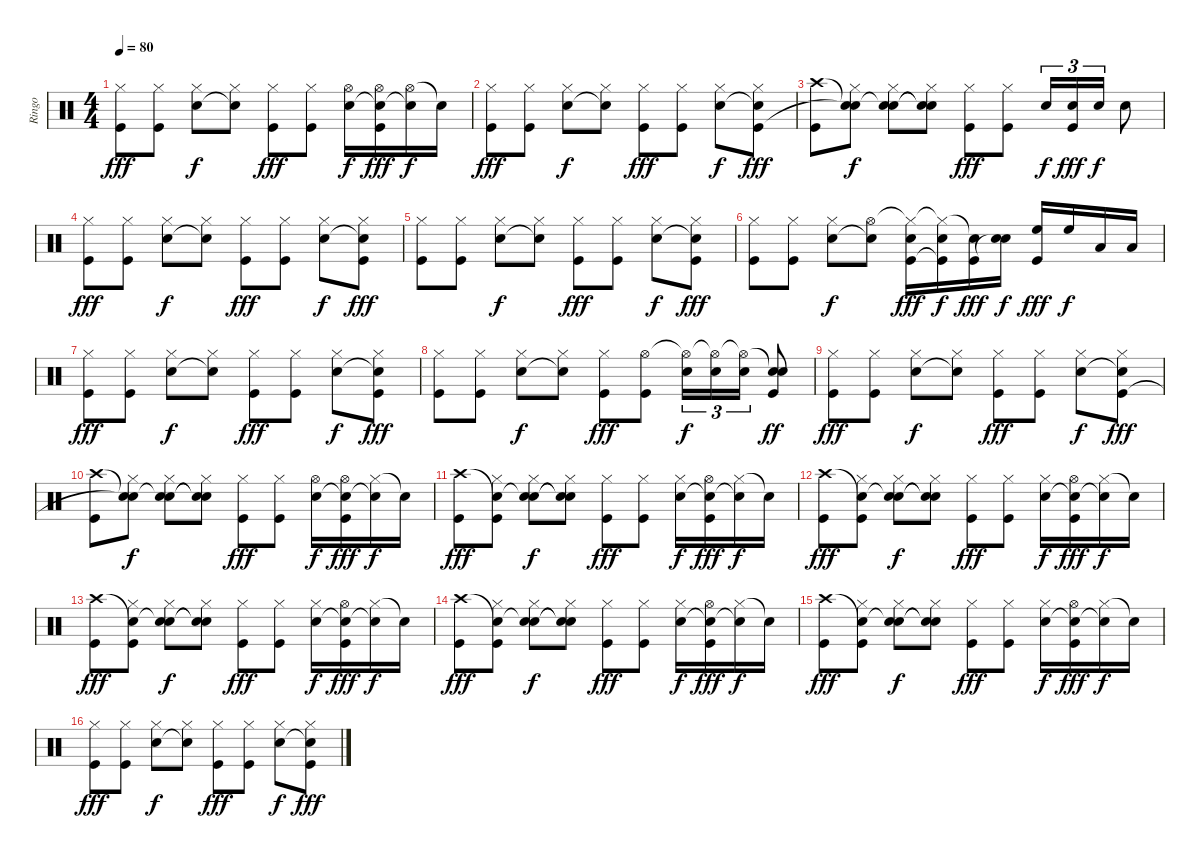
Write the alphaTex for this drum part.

\track ("Ringo" "Ringo") {instrument percussion}
\staff {score}
\articulation defaults
\ts (4 4)
\tempo 80
\clef neutral
\ks c
("Hi-Hat (closed)" "Kick (hit)").8{dy fff} ("Hi-Hat (closed)" "Kick (hit)").8 ("Hi-Hat (closed)" "Electric Snare (hit)").8{dy f} ("Hi-Hat (closed)" "Snare (hit)"{t}).8 ("Hi-Hat (closed)" "Kick (hit)").8{dy fff} ("Hi-Hat (closed)" "Kick (hit)").8 ("Hi-Hat (open)" "Electric Snare (hit)").16{dy f} ("Hi-Hat (open)" "Snare (hit)"{t} "Kick (hit)").16{dy fff} ("Hi-Hat (open)" "Snare (hit)"{t}).16{dy f} "Snare (hit)"{t}.16 |
("Hi-Hat (closed)" "Kick (hit)").8{dy fff} ("Hi-Hat (closed)" "Kick (hit)").8 ("Hi-Hat (closed)" "Electric Snare (hit)").8{dy f} ("Hi-Hat (closed)" "Snare (hit)"{t}).8 ("Hi-Hat (closed)" "Kick (hit)").8{dy fff} ("Hi-Hat (closed)" "Kick (hit)").8 ("Hi-Hat (closed)" "Electric Snare (hit)").8{dy f} ("Hi-Hat (closed)" "Snare (hit)"{t} "Kick (hit)").8{dy fff} |
("Crash high (hit)" "Kick (hit)").8 ("Snare (hit)"{t} "Hi-Hat (closed)" "Snare (hit)"{t}).8{dy f} ("Snare (hit)"{t} "Hi-Hat (closed)" "Electric Snare (hit)").8 ("Snare (hit)"{t} "Hi-Hat (closed)" "Snare (hit)"{t}).8 ("Hi-Hat (closed)" "Kick (hit)").8{dy fff} ("Hi-Hat (closed)" "Kick (hit)").8 "Electric Snare (hit)".16{tu (3 2) dy f} ("Electric Snare (hit)" "Kick (hit)").16{tu (3 2) dy fff} "Electric Snare (hit)".16{tu (3 2) dy f} "Electric Snare (hit)".8 |
("Hi-Hat (closed)" "Kick (hit)").8{dy fff} ("Hi-Hat (closed)" "Kick (hit)").8 ("Hi-Hat (closed)" "Electric Snare (hit)").8{dy f} ("Hi-Hat (closed)" "Snare (hit)"{t}).8 ("Hi-Hat (closed)" "Kick (hit)").8{dy fff} ("Hi-Hat (closed)" "Kick (hit)").8 ("Hi-Hat (closed)" "Electric Snare (hit)").8{dy f} ("Hi-Hat (closed)" "Snare (hit)"{t} "Kick (hit)").8{dy fff} |
("Hi-Hat (closed)" "Kick (hit)").8 ("Hi-Hat (closed)" "Kick (hit)").8 ("Hi-Hat (closed)" "Electric Snare (hit)").8{dy f} ("Hi-Hat (closed)" "Snare (hit)"{t}).8 ("Hi-Hat (closed)" "Kick (hit)").8{dy fff} ("Hi-Hat (closed)" "Kick (hit)").8 ("Hi-Hat (closed)" "Electric Snare (hit)").8{dy f} ("Hi-Hat (closed)" "Snare (hit)"{t} "Kick (hit)").8{dy fff} |
("Hi-Hat (closed)" "Kick (hit)").8 ("Hi-Hat (closed)" "Kick (hit)").8 ("Hi-Hat (closed)" "Electric Snare (hit)").8{dy f} ("Hi-Hat (open)" "Snare (hit)"{t}).8 ("Hi-Hat (closed)"{t} "Electric Snare (hit)" "Kick (hit)").16{dy fff} ("Hi-Hat (closed)"{t} "Electric Snare (hit)" "Kick (hit)"{t}).16{dy f} ("Electric Snare (hit)"{t} "Kick (hit)").16{dy fff} ("Electric Snare (hit)" "Snare (hit)"{t}).16{dy f} ("High Floor Tom (hit)" "Kick (hit)").16{dy fff} "High Floor Tom (hit)".16{dy f} "Low Tom (hit)".16 "Low Tom (hit)".16 |
("Hi-Hat (closed)" "Kick (hit)").8{dy fff} ("Hi-Hat (closed)" "Kick (hit)").8 ("Hi-Hat (closed)" "Electric Snare (hit)").8{dy f} ("Hi-Hat (closed)" "Snare (hit)"{t}).8 ("Hi-Hat (closed)" "Kick (hit)").8{dy fff} ("Hi-Hat (closed)" "Kick (hit)").8 ("Hi-Hat (closed)" "Electric Snare (hit)").8{dy f} ("Hi-Hat (closed)" "Snare (hit)"{t} "Kick (hit)").8{dy fff} |
("Hi-Hat (closed)" "Kick (hit)").8 ("Hi-Hat (closed)" "Kick (hit)").8 ("Hi-Hat (closed)" "Electric Snare (hit)").8{dy f} ("Hi-Hat (closed)" "Snare (hit)"{t}).8 ("Hi-Hat (closed)" "Kick (hit)").8{dy fff} ("Hi-Hat (open)" "Kick (hit)").8 ("Hi-Hat (open)"{t} "Electric Snare (hit)").16{tu (3 2) dy f} ("Hi-Hat (open)"{t} "Electric Snare (hit)").16{tu (3 2)} ("Hi-Hat (open)"{t} "Electric Snare (hit)").16{tu (3 2)} ("Snare (hit)"{t} "Electric Snare (hit)" "Kick (hit)").8{dy ff} |
("Hi-Hat (closed)" "Kick (hit)").8{dy fff} ("Hi-Hat (closed)" "Kick (hit)").8 ("Hi-Hat (closed)" "Electric Snare (hit)").8{dy f} ("Hi-Hat (closed)" "Snare (hit)"{t}).8 ("Hi-Hat (closed)" "Kick (hit)").8{dy fff} ("Hi-Hat (closed)" "Kick (hit)").8 ("Hi-Hat (closed)" "Electric Snare (hit)").8{dy f} ("Hi-Hat (closed)" "Snare (hit)"{t} "Kick (hit)").8{dy fff} |
("Crash high (hit)" "Kick (hit)").8 ("Snare (hit)"{t} "Hi-Hat (closed)" "Snare (hit)"{t}).8{dy f} ("Snare (hit)"{t} "Hi-Hat (closed)" "Electric Snare (hit)").8 ("Snare (hit)"{t} "Hi-Hat (closed)" "Snare (hit)"{t}).8 ("Hi-Hat (closed)" "Kick (hit)").8{dy fff} ("Hi-Hat (closed)" "Kick (hit)").8 ("Hi-Hat (open)" "Electric Snare (hit)").16{dy f} ("Hi-Hat (open)" "Snare (hit)"{t} "Kick (hit)").16{dy fff} ("Hi-Hat (closed)" "Snare (hit)"{t}).16{dy f} "Snare (hit)"{t}.16 |
("Crash high (hit)" "Kick (hit)").8{dy fff} ("Snare (hit)"{t} "Hi-Hat (closed)" "Kick (hit)").8 ("Snare (hit)"{t} "Hi-Hat (closed)" "Electric Snare (hit)").8{dy f} ("Snare (hit)"{t} "Hi-Hat (closed)" "Snare (hit)"{t}).8 ("Hi-Hat (closed)" "Kick (hit)").8{dy fff} ("Hi-Hat (closed)" "Kick (hit)").8 ("Hi-Hat (closed)" "Electric Snare (hit)").16{dy f} ("Hi-Hat (open)" "Snare (hit)"{t} "Kick (hit)").16{dy fff} ("Hi-Hat (closed)" "Snare (hit)"{t}).16{dy f} "Snare (hit)"{t}.16 |
("Crash high (hit)" "Kick (hit)").8{dy fff} ("Snare (hit)"{t} "Hi-Hat (closed)" "Kick (hit)").8 ("Snare (hit)"{t} "Hi-Hat (closed)" "Electric Snare (hit)").8{dy f} ("Snare (hit)"{t} "Hi-Hat (closed)" "Snare (hit)"{t}).8 ("Hi-Hat (closed)" "Kick (hit)").8{dy fff} ("Hi-Hat (closed)" "Kick (hit)").8 ("Hi-Hat (closed)" "Electric Snare (hit)").16{dy f} ("Hi-Hat (open)" "Snare (hit)"{t} "Kick (hit)").16{dy fff} ("Hi-Hat (closed)" "Snare (hit)"{t}).16{dy f} "Snare (hit)"{t}.16 |
("Crash high (hit)" "Kick (hit)").8{dy fff} ("Snare (hit)"{t} "Hi-Hat (closed)" "Kick (hit)").8 ("Snare (hit)"{t} "Hi-Hat (closed)" "Electric Snare (hit)").8{dy f} ("Snare (hit)"{t} "Hi-Hat (closed)" "Snare (hit)"{t}).8 ("Hi-Hat (closed)" "Kick (hit)").8{dy fff} ("Hi-Hat (closed)" "Kick (hit)").8 ("Hi-Hat (closed)" "Electric Snare (hit)").16{dy f} ("Hi-Hat (open)" "Snare (hit)"{t} "Kick (hit)").16{dy fff} ("Hi-Hat (closed)" "Snare (hit)"{t}).16{dy f} "Snare (hit)"{t}.16 |
("Crash high (hit)" "Kick (hit)").8{dy fff} ("Snare (hit)"{t} "Hi-Hat (closed)" "Kick (hit)").8 ("Snare (hit)"{t} "Hi-Hat (closed)" "Electric Snare (hit)").8{dy f} ("Snare (hit)"{t} "Hi-Hat (closed)" "Snare (hit)"{t}).8 ("Hi-Hat (closed)" "Kick (hit)").8{dy fff} ("Hi-Hat (closed)" "Kick (hit)").8 ("Hi-Hat (closed)" "Electric Snare (hit)").16{dy f} ("Hi-Hat (open)" "Snare (hit)"{t} "Kick (hit)").16{dy fff} ("Hi-Hat (closed)" "Snare (hit)"{t}).16{dy f} "Snare (hit)"{t}.16 |
("Crash high (hit)" "Kick (hit)").8{dy fff} ("Snare (hit)"{t} "Hi-Hat (closed)" "Kick (hit)").8 ("Snare (hit)"{t} "Hi-Hat (closed)" "Electric Snare (hit)").8{dy f} ("Snare (hit)"{t} "Hi-Hat (closed)" "Snare (hit)"{t}).8 ("Hi-Hat (closed)" "Kick (hit)").8{dy fff} ("Hi-Hat (closed)" "Kick (hit)").8 ("Hi-Hat (closed)" "Electric Snare (hit)").16{dy f} ("Hi-Hat (open)" "Snare (hit)"{t} "Kick (hit)").16{dy fff} ("Hi-Hat (closed)" "Snare (hit)"{t}).16{dy f} "Snare (hit)"{t}.16 |
("Hi-Hat (closed)" "Kick (hit)").8{dy fff} ("Hi-Hat (closed)" "Kick (hit)").8 ("Hi-Hat (closed)" "Electric Snare (hit)").8{dy f} ("Hi-Hat (closed)" "Snare (hit)"{t}).8 ("Hi-Hat (closed)" "Kick (hit)").8{dy fff} ("Hi-Hat (closed)" "Kick (hit)").8 ("Hi-Hat (closed)" "Electric Snare (hit)").8{dy f} ("Hi-Hat (closed)" "Snare (hit)"{t} "Kick (hit)").8{dy fff}
